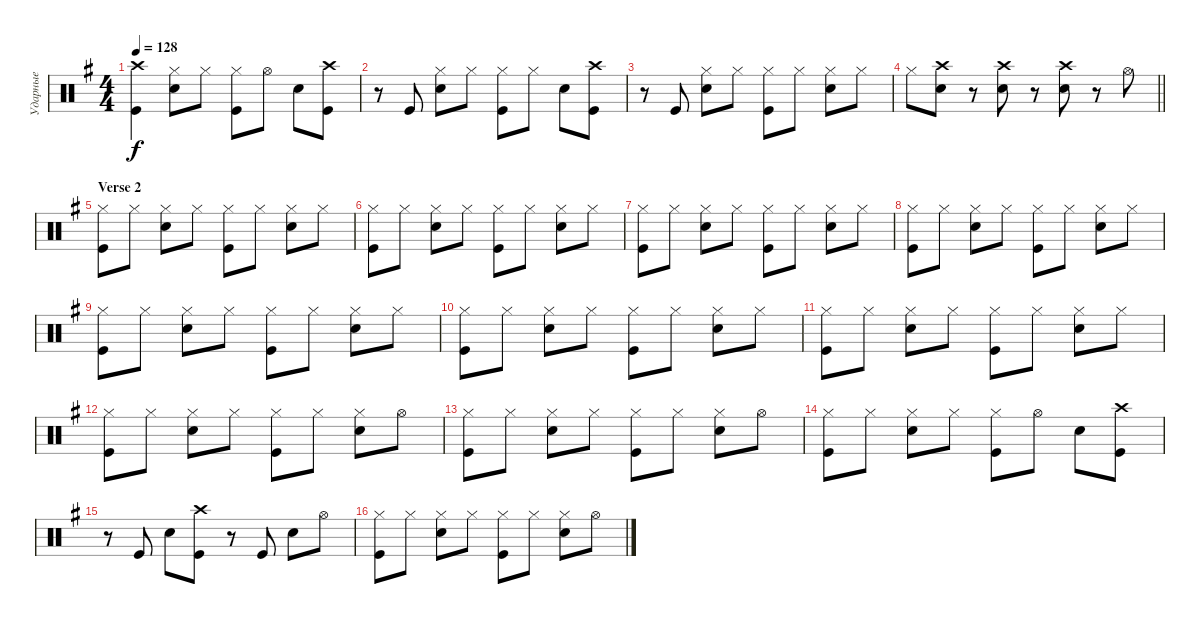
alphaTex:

\track ("Ударные" "Ударные") {instrument percussion}
\staff {score}
\articulation defaults
\ts (4 4)
\tempo 128
\clef neutral
\ks eminor
("Crash high (hit)" "Kick (hit)").4{dy f} ("Hi-Hat (closed)" "Snare (hit) 2").8 "Hi-Hat (closed)".8 ("Hi-Hat (closed)" "Kick (hit)").8 "Hi-Hat (open)".8 "Snare (hit) 2".8 ("Kick (hit)" "Crash high (hit)").8 |
r.8 "Kick (hit)".8 ("Hi-Hat (closed)" "Snare (hit) 2").8 "Hi-Hat (closed)".8 ("Hi-Hat (closed)" "Kick (hit)").8 "Hi-Hat (closed)".8 "Snare (hit) 2".8 ("Kick (hit)" "Crash high (hit)").8 |
r.8 "Kick (hit)".8 ("Hi-Hat (closed)" "Snare (hit) 2").8 "Hi-Hat (closed)".8 ("Hi-Hat (closed)" "Kick (hit)").8 "Hi-Hat (closed)".8 ("Hi-Hat (closed)" "Snare (hit) 2").8 "Hi-Hat (closed)".8 |
\barLineRight lightlight "Hi-Hat (closed)".8
("Snare (hit) 2" "Crash high (hit)").8 r.8 ("Snare (hit) 2" "Crash high (hit)").8 r.8 ("Snare (hit) 2" "Crash high (hit)").8 r.8 "Hi-Hat (open)".8 |
\section ("" "Verse 2")
("Hi-Hat (closed)" "Kick (hit)").8 "Hi-Hat (closed)".8 ("Hi-Hat (closed)" "Snare (hit) 2").8 "Hi-Hat (closed)".8 ("Hi-Hat (closed)" "Kick (hit)").8 "Hi-Hat (closed)".8 ("Hi-Hat (closed)" "Snare (hit) 2").8 "Hi-Hat (closed)".8 |
("Hi-Hat (closed)" "Kick (hit)").8 "Hi-Hat (closed)".8 ("Hi-Hat (closed)" "Snare (hit) 2").8 "Hi-Hat (closed)".8 ("Hi-Hat (closed)" "Kick (hit)").8 "Hi-Hat (closed)".8 ("Hi-Hat (closed)" "Snare (hit) 2").8 "Hi-Hat (closed)".8 |
("Hi-Hat (closed)" "Kick (hit)").8 "Hi-Hat (closed)".8 ("Hi-Hat (closed)" "Snare (hit) 2").8 "Hi-Hat (closed)".8 ("Hi-Hat (closed)" "Kick (hit)").8 "Hi-Hat (closed)".8 ("Hi-Hat (closed)" "Snare (hit) 2").8 "Hi-Hat (closed)".8 |
("Hi-Hat (closed)" "Kick (hit)").8 "Hi-Hat (closed)".8 ("Hi-Hat (closed)" "Snare (hit) 2").8 "Hi-Hat (closed)".8 ("Hi-Hat (closed)" "Kick (hit)").8 "Hi-Hat (closed)".8 ("Hi-Hat (closed)" "Snare (hit) 2").8 "Hi-Hat (closed)".8 |
("Hi-Hat (closed)" "Kick (hit)").8 "Hi-Hat (closed)".8 ("Hi-Hat (closed)" "Snare (hit) 2").8 "Hi-Hat (closed)".8 ("Hi-Hat (closed)" "Kick (hit)").8 "Hi-Hat (closed)".8 ("Hi-Hat (closed)" "Snare (hit) 2").8 "Hi-Hat (closed)".8 |
("Hi-Hat (closed)" "Kick (hit)").8 "Hi-Hat (closed)".8 ("Hi-Hat (closed)" "Snare (hit) 2").8 "Hi-Hat (closed)".8 ("Hi-Hat (closed)" "Kick (hit)").8 "Hi-Hat (closed)".8 ("Hi-Hat (closed)" "Snare (hit) 2").8 "Hi-Hat (closed)".8 |
("Hi-Hat (closed)" "Kick (hit)").8 "Hi-Hat (closed)".8 ("Hi-Hat (closed)" "Snare (hit) 2").8 "Hi-Hat (closed)".8 ("Hi-Hat (closed)" "Kick (hit)").8 "Hi-Hat (closed)".8 ("Hi-Hat (closed)" "Snare (hit) 2").8 "Hi-Hat (closed)".8 |
("Hi-Hat (closed)" "Kick (hit)").8 "Hi-Hat (closed)".8 ("Hi-Hat (closed)" "Snare (hit) 2").8 "Hi-Hat (closed)".8 ("Hi-Hat (closed)" "Kick (hit)").8 "Hi-Hat (closed)".8 ("Hi-Hat (closed)" "Snare (hit) 2").8 "Hi-Hat (open)".8 |
("Hi-Hat (closed)" "Kick (hit)").8 "Hi-Hat (closed)".8 ("Hi-Hat (closed)" "Snare (hit) 2").8 "Hi-Hat (closed)".8 ("Hi-Hat (closed)" "Kick (hit)").8 "Hi-Hat (closed)".8 ("Hi-Hat (closed)" "Snare (hit) 2").8 "Hi-Hat (open)".8 |
("Hi-Hat (closed)" "Kick (hit)").8 "Hi-Hat (closed)".8 ("Hi-Hat (closed)" "Snare (hit) 2").8 "Hi-Hat (closed)".8 ("Hi-Hat (closed)" "Kick (hit)").8 "Hi-Hat (open)".8 "Snare (hit) 2".8 ("Kick (hit)" "Crash high (hit)").8 |
r.8 "Kick (hit)".8 "Snare (hit) 2".8 ("Kick (hit)" "Crash high (hit)").8 r.8 "Kick (hit)".8 "Snare (hit) 2".8 "Hi-Hat (open)".8 |
("Hi-Hat (closed)" "Kick (hit)").8 "Hi-Hat (closed)".8 ("Hi-Hat (closed)" "Snare (hit) 2").8 "Hi-Hat (closed)".8 ("Hi-Hat (closed)" "Kick (hit)").8 "Hi-Hat (closed)".8 ("Hi-Hat (closed)" "Snare (hit) 2").8 "Hi-Hat (open)".8
